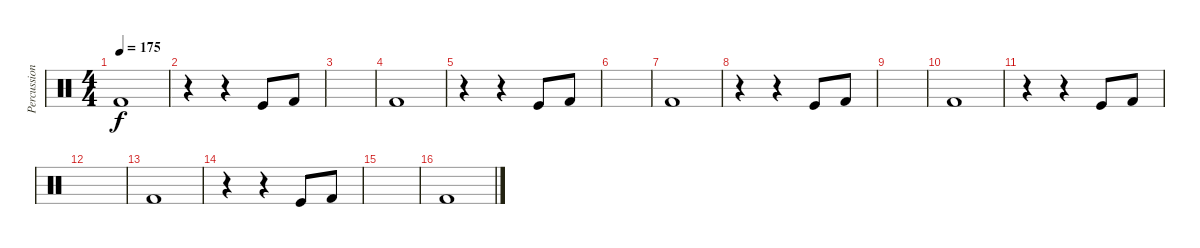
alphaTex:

\track ("Percussion" "Percussion") {instrument percussion}
\staff {score}
\articulation defaults
\ts (4 4)
\tempo 175
\clef neutral
\ks c "Kick (hit) 2".1{dy f}
|
r.4 r.4 "Kick (hit)".8 "Kick (hit) 2".8 |
|
"Kick (hit) 2".1 |
r.4 r.4 "Kick (hit)".8 "Kick (hit) 2".8 |
|
"Kick (hit) 2".1 |
r.4 r.4 "Kick (hit)".8 "Kick (hit) 2".8 |
|
"Kick (hit) 2".1 |
r.4 r.4 "Kick (hit)".8 "Kick (hit) 2".8 |
|
"Kick (hit) 2".1 |
r.4 r.4 "Kick (hit)".8 "Kick (hit) 2".8 |
|
"Kick (hit) 2".1
